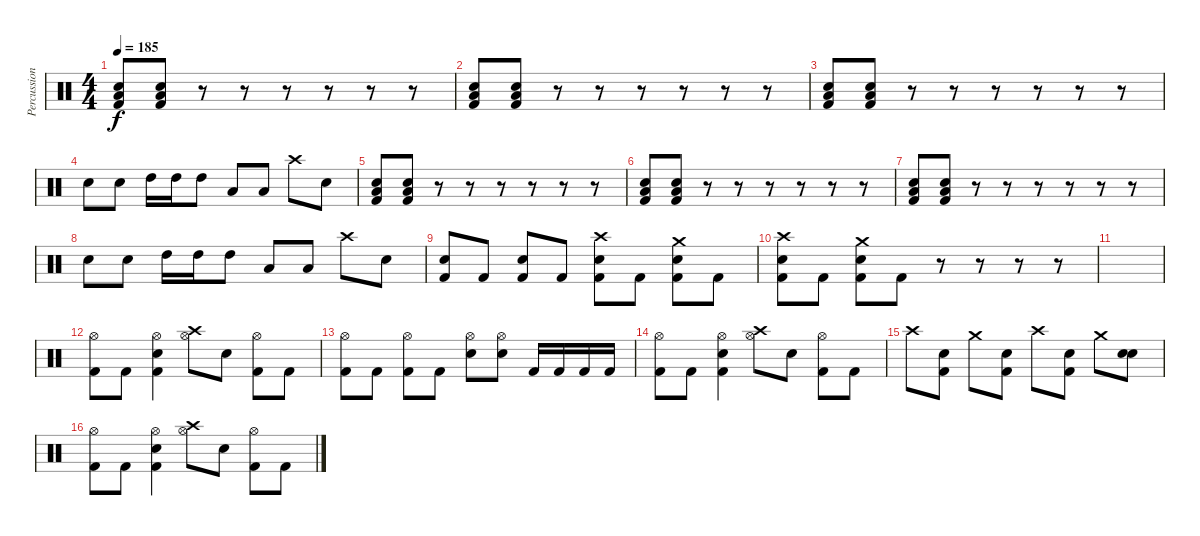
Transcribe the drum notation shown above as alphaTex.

\track ("Percussion" "Percussion") {instrument percussion}
\staff {score}
\articulation defaults
\ts (4 4)
\tempo 185
\clef neutral
\ks c
("Low Floor Tom (hit)" "Snare (hit) 2" "Kick (hit) 2").8{dy f} ("Low Floor Tom (hit)" "Snare (hit) 2" "Kick (hit) 2").8 r.8 r.8 r.8 r.8 r.8 r.8 |
("Low Floor Tom (hit)" "Snare (hit) 2" "Kick (hit) 2").8 ("Low Floor Tom (hit)" "Snare (hit) 2" "Kick (hit) 2").8 r.8 r.8 r.8 r.8 r.8 r.8 |
("Low Floor Tom (hit)" "Snare (hit) 2" "Kick (hit) 2").8 ("Low Floor Tom (hit)" "Snare (hit) 2" "Kick (hit) 2").8 r.8 r.8 r.8 r.8 r.8 r.8 |
"Snare (hit) 2".8 "Snare (hit) 2".8 "High Tom (hit)".16 "High Tom (hit)".16 "High Tom (hit)".8 "Low Floor Tom (hit)".8 "Low Floor Tom (hit)".8 "Crash high (hit)".8 "Snare (hit) 2".8 |
("Low Floor Tom (hit)" "Snare (hit) 2" "Kick (hit) 2").8 ("Low Floor Tom (hit)" "Snare (hit) 2" "Kick (hit) 2").8 r.8 r.8 r.8 r.8 r.8 r.8 |
("Low Floor Tom (hit)" "Snare (hit) 2" "Kick (hit) 2").8 ("Low Floor Tom (hit)" "Snare (hit) 2" "Kick (hit) 2").8 r.8 r.8 r.8 r.8 r.8 r.8 |
("Low Floor Tom (hit)" "Snare (hit) 2" "Kick (hit) 2").8 ("Low Floor Tom (hit)" "Snare (hit) 2" "Kick (hit) 2").8 r.8 r.8 r.8 r.8 r.8 r.8 |
"Snare (hit) 2".8 "Snare (hit) 2".8 "High Tom (hit)".16 "High Tom (hit)".16 "High Tom (hit)".8 "Low Floor Tom (hit)".8 "Low Floor Tom (hit)".8 "Crash high (hit)".8 "Snare (hit) 2".8 |
("Snare (hit) 2" "Kick (hit) 2").8 "Kick (hit) 2".8 ("Snare (hit) 2" "Kick (hit) 2").8 "Kick (hit) 2".8 ("Crash high (hit)" "Snare (hit) 2" "Kick (hit) 2").8 "Kick (hit) 2".8 ("Crash medium (hit)" "Snare (hit) 2" "Kick (hit) 2").8 "Kick (hit) 2".8 |
("Crash high (hit)" "Snare (hit) 2" "Kick (hit) 2").8 "Kick (hit) 2".8 ("Crash medium (hit)" "Snare (hit) 2" "Kick (hit) 2").8 "Kick (hit) 2".8 r.8 r.8 r.8 r.8 |
|
("Hi-Hat (open)" "Kick (hit) 2").8 "Kick (hit) 2".8 ("Hi-Hat (open)" "Snare (hit) 2" "Kick (hit) 2").4 ("Crash high (hit)" "Hi-Hat (open)").8 "Snare (hit) 2".8 ("Hi-Hat (open)" "Kick (hit) 2").8 "Kick (hit) 2".8 |
("Hi-Hat (open)" "Kick (hit) 2").8 "Kick (hit) 2".8 ("Hi-Hat (open)" "Kick (hit) 2").8 "Kick (hit) 2".8 ("Hi-Hat (open)" "Snare (hit) 2").8 ("Hi-Hat (open)" "Snare (hit) 2").8 "Kick (hit) 2".16 "Kick (hit) 2".16 "Kick (hit) 2".16 "Kick (hit) 2".16 |
("Hi-Hat (open)" "Kick (hit) 2").8 "Kick (hit) 2".8 ("Hi-Hat (open)" "Snare (hit) 2" "Kick (hit) 2").4 ("Crash high (hit)" "Hi-Hat (open)").8 "Snare (hit) 2".8 ("Hi-Hat (open)" "Kick (hit) 2").8 "Kick (hit) 2".8 |
"Crash high (hit)".8 ("Snare (hit) 2" "Kick (hit) 2").8 "Crash medium (hit)".8 ("Snare (hit) 2" "Kick (hit) 2").8 "Crash high (hit)".8 ("Snare (hit) 2" "Kick (hit) 2").8 "Crash medium (hit)".8 ("Snare (hit) 2" "Snare (hit) 2").8 |
("Hi-Hat (open)" "Kick (hit) 2").8 "Kick (hit) 2".8 ("Hi-Hat (open)" "Snare (hit) 2" "Kick (hit) 2").4 ("Crash high (hit)" "Hi-Hat (open)").8 "Snare (hit) 2".8 ("Hi-Hat (open)" "Kick (hit) 2").8 "Kick (hit) 2".8
